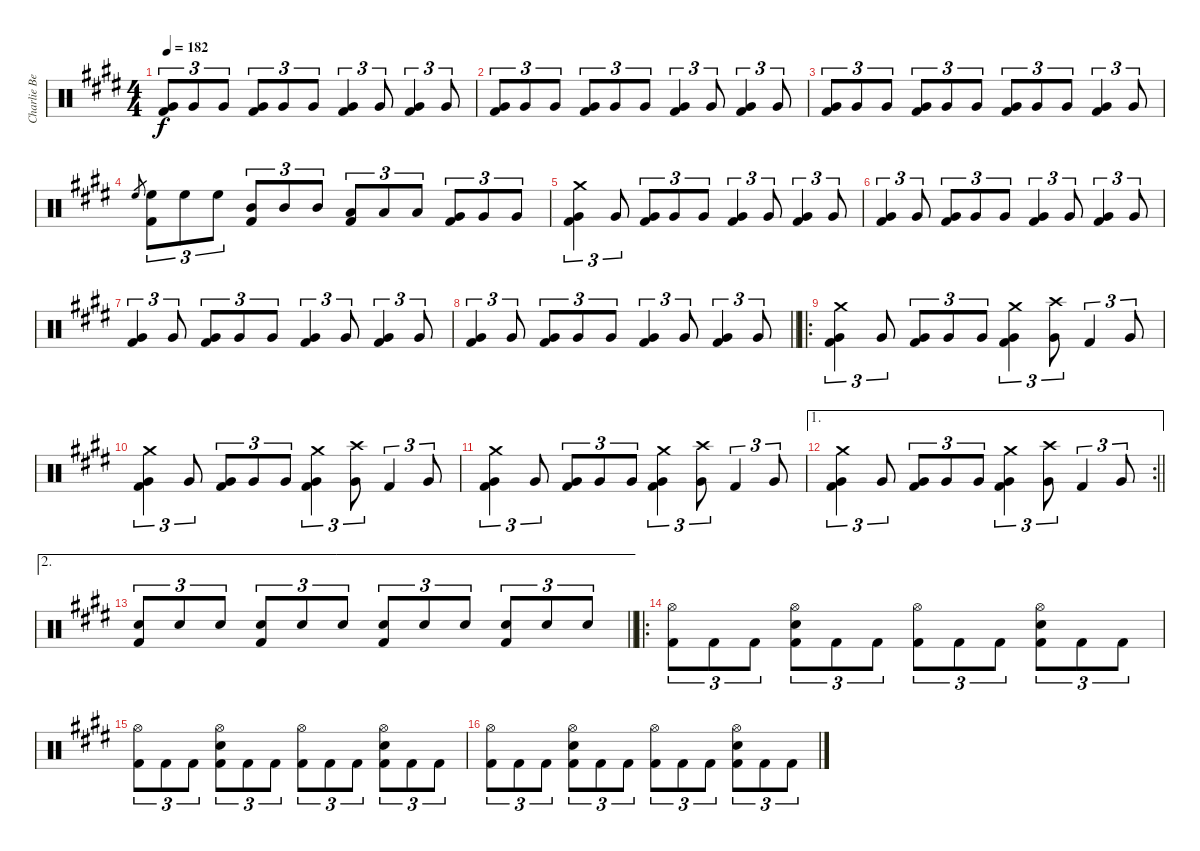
\track ("Charlie Benate " "Charlie Be") {instrument percussion}
\staff {score}
\articulation defaults
\ts (4 4)
\tempo 182
\clef neutral
\ks e
("Very Low Tom (hit)" "Kick (hit) 2").8{tu (3 2) dy f} "Very Low Tom (hit)".8{tu (3 2)} "Very Low Tom (hit)".8{tu (3 2)} ("Very Low Tom (hit)" "Kick (hit) 2").8{tu (3 2)} "Very Low Tom (hit)".8{tu (3 2)} "Very Low Tom (hit)".8{tu (3 2)} ("Very Low Tom (hit)" "Kick (hit) 2").4{tu (3 2)} "Very Low Tom (hit)".8{tu (3 2)} ("Very Low Tom (hit)" "Kick (hit) 2").4{tu (3 2)} "Very Low Tom (hit)".8{tu (3 2)} |
("Very Low Tom (hit)" "Kick (hit) 2").8{tu (3 2)} "Very Low Tom (hit)".8{tu (3 2)} "Very Low Tom (hit)".8{tu (3 2)} ("Very Low Tom (hit)" "Kick (hit) 2").8{tu (3 2)} "Very Low Tom (hit)".8{tu (3 2)} "Very Low Tom (hit)".8{tu (3 2)} ("Very Low Tom (hit)" "Kick (hit) 2").4{tu (3 2)} "Very Low Tom (hit)".8{tu (3 2)} ("Very Low Tom (hit)" "Kick (hit) 2").4{tu (3 2)} "Very Low Tom (hit)".8{tu (3 2)} |
("Very Low Tom (hit)" "Kick (hit) 2").8{tu (3 2)} "Very Low Tom (hit)".8{tu (3 2)} "Very Low Tom (hit)".8{tu (3 2)} ("Very Low Tom (hit)" "Kick (hit) 2").8{tu (3 2)} "Very Low Tom (hit)".8{tu (3 2)} "Very Low Tom (hit)".8{tu (3 2)} ("Very Low Tom (hit)" "Kick (hit) 2").8{tu (3 2)} "Very Low Tom (hit)".8{tu (3 2)} "Very Low Tom (hit)".8{tu (3 2)} ("Very Low Tom (hit)" "Kick (hit) 2").4{tu (3 2)} "Very Low Tom (hit)".8{tu (3 2)} |
"High Floor Tom (hit)".8{gr} ("High Floor Tom (hit)" "Kick (hit) 2").8{tu (3 2)} "High Floor Tom (hit)".8{tu (3 2)} "High Floor Tom (hit)".8{tu (3 2)} ("Mid Tom (hit)" "Kick (hit) 2").8{tu (3 2)} "Mid Tom (hit)".8{tu (3 2)} "Mid Tom (hit)".8{tu (3 2)} ("Low Tom (hit)" "Kick (hit) 2").8{tu (3 2)} "Low Tom (hit)".8{tu (3 2)} "Low Tom (hit)".8{tu (3 2)} ("Very Low Tom (hit)" "Kick (hit) 2").8{tu (3 2)} "Very Low Tom (hit)".8{tu (3 2)} "Very Low Tom (hit)".8{tu (3 2)} |
("Crash medium (hit)" "Very Low Tom (hit)" "Kick (hit) 2").4{tu (3 2)} "Very Low Tom (hit)".8{tu (3 2)} ("Very Low Tom (hit)" "Kick (hit) 2").8{tu (3 2)} "Very Low Tom (hit)".8{tu (3 2)} "Very Low Tom (hit)".8{tu (3 2)} ("Very Low Tom (hit)" "Kick (hit) 2").4{tu (3 2)} "Very Low Tom (hit)".8{tu (3 2)} ("Very Low Tom (hit)" "Kick (hit) 2").4{tu (3 2)} "Very Low Tom (hit)".8{tu (3 2)} |
("Very Low Tom (hit)" "Kick (hit) 2").4{tu (3 2)} "Very Low Tom (hit)".8{tu (3 2)} ("Very Low Tom (hit)" "Kick (hit) 2").8{tu (3 2)} "Very Low Tom (hit)".8{tu (3 2)} "Very Low Tom (hit)".8{tu (3 2)} ("Very Low Tom (hit)" "Kick (hit) 2").4{tu (3 2)} "Very Low Tom (hit)".8{tu (3 2)} ("Very Low Tom (hit)" "Kick (hit) 2").4{tu (3 2)} "Very Low Tom (hit)".8{tu (3 2)} |
("Very Low Tom (hit)" "Kick (hit) 2").4{tu (3 2)} "Very Low Tom (hit)".8{tu (3 2)} ("Very Low Tom (hit)" "Kick (hit) 2").8{tu (3 2)} "Very Low Tom (hit)".8{tu (3 2)} "Very Low Tom (hit)".8{tu (3 2)} ("Very Low Tom (hit)" "Kick (hit) 2").4{tu (3 2)} "Very Low Tom (hit)".8{tu (3 2)} ("Very Low Tom (hit)" "Kick (hit) 2").4{tu (3 2)} "Very Low Tom (hit)".8{tu (3 2)} |
\barLineRight lightlight
("Very Low Tom (hit)" "Kick (hit) 2").4{tu (3 2)} "Very Low Tom (hit)".8{tu (3 2)} ("Very Low Tom (hit)" "Kick (hit) 2").8{tu (3 2)} "Very Low Tom (hit)".8{tu (3 2)} "Very Low Tom (hit)".8{tu (3 2)} ("Very Low Tom (hit)" "Kick (hit) 2").4{tu (3 2)} "Very Low Tom (hit)".8{tu (3 2)} ("Very Low Tom (hit)" "Kick (hit) 2").4{tu (3 2)} "Very Low Tom (hit)".8{tu (3 2)} |
\ro
("Crash medium (hit)" "Very Low Tom (hit)" "Kick (hit) 2").4{tu (3 2)} "Very Low Tom (hit)".8{tu (3 2)} ("Very Low Tom (hit)" "Kick (hit) 2").8{tu (3 2)} "Very Low Tom (hit)".8{tu (3 2)} "Very Low Tom (hit)".8{tu (3 2)} ("Crash medium (hit)" "Very Low Tom (hit)" "Kick (hit) 2").4{tu (3 2)} ("Crash high (hit)" "Very Low Tom (hit)").8{tu (3 2)} "Kick (hit) 2".4{tu (3 2)} "Very Low Tom (hit)".8{tu (3 2)} |
("Crash medium (hit)" "Very Low Tom (hit)" "Kick (hit) 2").4{tu (3 2)} "Very Low Tom (hit)".8{tu (3 2)} ("Very Low Tom (hit)" "Kick (hit) 2").8{tu (3 2)} "Very Low Tom (hit)".8{tu (3 2)} "Very Low Tom (hit)".8{tu (3 2)} ("Crash medium (hit)" "Very Low Tom (hit)" "Kick (hit) 2").4{tu (3 2)} ("Crash high (hit)" "Very Low Tom (hit)").8{tu (3 2)} "Kick (hit) 2".4{tu (3 2)} "Very Low Tom (hit)".8{tu (3 2)} |
("Crash medium (hit)" "Very Low Tom (hit)" "Kick (hit) 2").4{tu (3 2)} "Very Low Tom (hit)".8{tu (3 2)} ("Very Low Tom (hit)" "Kick (hit) 2").8{tu (3 2)} "Very Low Tom (hit)".8{tu (3 2)} "Very Low Tom (hit)".8{tu (3 2)} ("Crash medium (hit)" "Very Low Tom (hit)" "Kick (hit) 2").4{tu (3 2)} ("Crash high (hit)" "Very Low Tom (hit)").8{tu (3 2)} "Kick (hit) 2".4{tu (3 2)} "Very Low Tom (hit)".8{tu (3 2)} |
\ae 1
\rc 2
\barLineRight lightlight
("Crash medium (hit)" "Very Low Tom (hit)" "Kick (hit) 2").4{tu (3 2)} "Very Low Tom (hit)".8{tu (3 2)} ("Very Low Tom (hit)" "Kick (hit) 2").8{tu (3 2)} "Very Low Tom (hit)".8{tu (3 2)} "Very Low Tom (hit)".8{tu (3 2)} ("Crash medium (hit)" "Very Low Tom (hit)" "Kick (hit) 2").4{tu (3 2)} ("Crash high (hit)" "Very Low Tom (hit)").8{tu (3 2)} "Kick (hit) 2".4{tu (3 2)} "Very Low Tom (hit)".8{tu (3 2)} |
\ae 2
\barLineRight lightlight
("Snare (hit) 2" "Kick (hit) 2").8{tu (3 2)} "Snare (hit) 2".8{tu (3 2)} "Snare (hit) 2".8{tu (3 2)} ("Snare (hit) 2" "Kick (hit) 2").8{tu (3 2)} "Snare (hit) 2".8{tu (3 2)} "Snare (hit) 2".8{tu (3 2)} ("Snare (hit) 2" "Kick (hit) 2").8{tu (3 2)} "Snare (hit) 2".8{tu (3 2)} "Snare (hit) 2".8{tu (3 2)} ("Snare (hit) 2" "Kick (hit) 2").8{tu (3 2)} "Snare (hit) 2".8{tu (3 2)} "Snare (hit) 2".8{tu (3 2)} |
\ro
("Hi-Hat (open)" "Kick (hit) 2").8{tu (3 2)} "Kick (hit) 2".8{tu (3 2)} "Kick (hit) 2".8{tu (3 2)} ("Hi-Hat (open)" "Snare (hit) 2" "Kick (hit) 2").8{tu (3 2)} "Kick (hit) 2".8{tu (3 2)} "Kick (hit) 2".8{tu (3 2)} ("Hi-Hat (open)" "Kick (hit) 2").8{tu (3 2)} "Kick (hit) 2".8{tu (3 2)} "Kick (hit) 2".8{tu (3 2)} ("Hi-Hat (open)" "Snare (hit) 2" "Kick (hit) 2").8{tu (3 2)} "Kick (hit) 2".8{tu (3 2)} "Kick (hit) 2".8{tu (3 2)} |
("Hi-Hat (open)" "Kick (hit) 2").8{tu (3 2)} "Kick (hit) 2".8{tu (3 2)} "Kick (hit) 2".8{tu (3 2)} ("Hi-Hat (open)" "Snare (hit) 2" "Kick (hit) 2").8{tu (3 2)} "Kick (hit) 2".8{tu (3 2)} "Kick (hit) 2".8{tu (3 2)} ("Hi-Hat (open)" "Kick (hit) 2").8{tu (3 2)} "Kick (hit) 2".8{tu (3 2)} "Kick (hit) 2".8{tu (3 2)} ("Hi-Hat (open)" "Snare (hit) 2" "Kick (hit) 2").8{tu (3 2)} "Kick (hit) 2".8{tu (3 2)} "Kick (hit) 2".8{tu (3 2)} |
("Hi-Hat (open)" "Kick (hit) 2").8{tu (3 2)} "Kick (hit) 2".8{tu (3 2)} "Kick (hit) 2".8{tu (3 2)} ("Hi-Hat (open)" "Snare (hit) 2" "Kick (hit) 2").8{tu (3 2)} "Kick (hit) 2".8{tu (3 2)} "Kick (hit) 2".8{tu (3 2)} ("Hi-Hat (open)" "Kick (hit) 2").8{tu (3 2)} "Kick (hit) 2".8{tu (3 2)} "Kick (hit) 2".8{tu (3 2)} ("Hi-Hat (open)" "Snare (hit) 2" "Kick (hit) 2").8{tu (3 2)} "Kick (hit) 2".8{tu (3 2)} "Kick (hit) 2".8{tu (3 2)}
